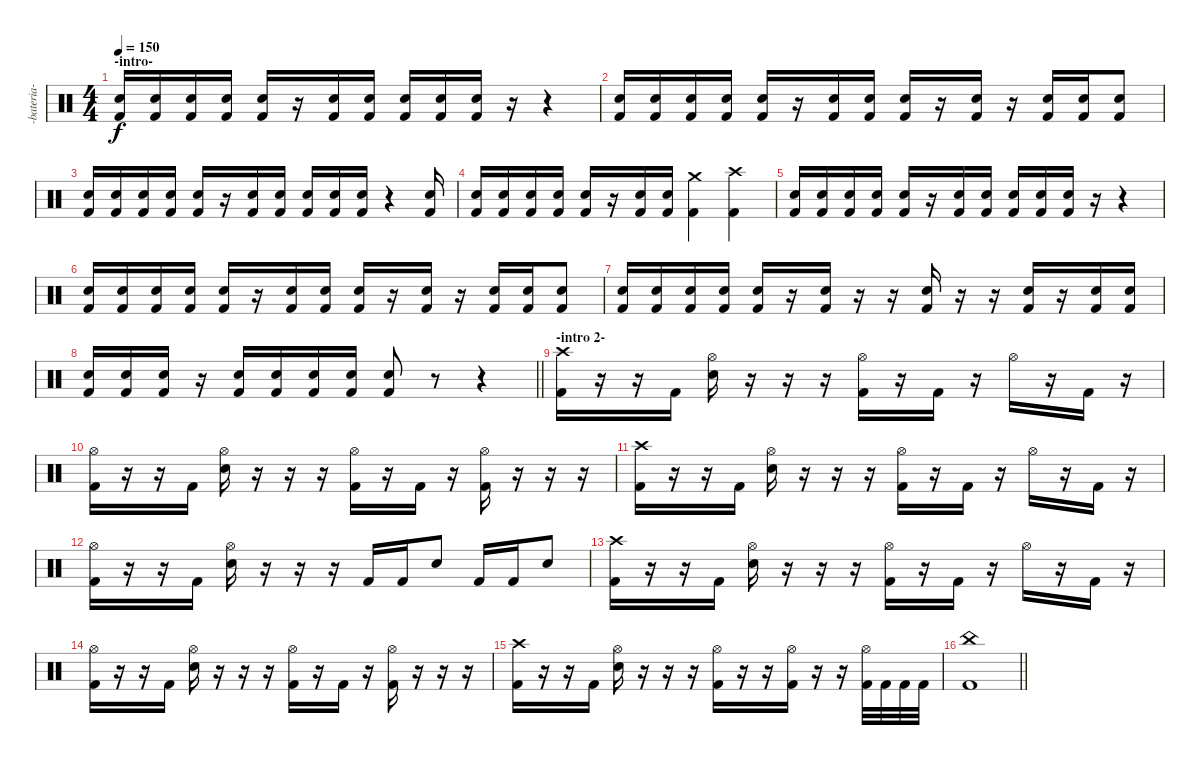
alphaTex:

\track ("-bateria-" "-bateria-") {instrument percussion}
\staff {score}
\articulation defaults
\ts (4 4)
\section ("" "-intro-")
\tempo 150
\clef neutral
\ks c
("Snare (hit) 2" "Kick (hit) 2").16{dy f} ("Snare (hit) 2" "Kick (hit) 2").16 ("Snare (hit) 2" "Kick (hit) 2").16 ("Snare (hit) 2" "Kick (hit) 2").16 ("Snare (hit) 2" "Kick (hit) 2").16 r.16 ("Snare (hit) 2" "Kick (hit) 2").16 ("Snare (hit) 2" "Kick (hit) 2").16 ("Snare (hit) 2" "Kick (hit) 2").16 ("Snare (hit) 2" "Kick (hit) 2").16 ("Snare (hit) 2" "Kick (hit) 2").16 r.16 r.4 |
("Snare (hit) 2" "Kick (hit) 2").16 ("Snare (hit) 2" "Kick (hit) 2").16 ("Snare (hit) 2" "Kick (hit) 2").16 ("Snare (hit) 2" "Kick (hit) 2").16 ("Snare (hit) 2" "Kick (hit) 2").16 r.16 ("Snare (hit) 2" "Kick (hit) 2").16 ("Snare (hit) 2" "Kick (hit) 2").16 ("Snare (hit) 2" "Kick (hit) 2").16 r.16 ("Snare (hit) 2" "Kick (hit) 2").16 r.16 ("Snare (hit) 2" "Kick (hit) 2").16 ("Snare (hit) 2" "Kick (hit) 2").16 ("Snare (hit) 2" "Kick (hit) 2").8 |
("Snare (hit) 2" "Kick (hit) 2").16 ("Snare (hit) 2" "Kick (hit) 2").16 ("Snare (hit) 2" "Kick (hit) 2").16 ("Snare (hit) 2" "Kick (hit) 2").16 ("Snare (hit) 2" "Kick (hit) 2").16 r.16 ("Snare (hit) 2" "Kick (hit) 2").16 ("Snare (hit) 2" "Kick (hit) 2").16 ("Snare (hit) 2" "Kick (hit) 2").16 ("Snare (hit) 2" "Kick (hit) 2").16 ("Snare (hit) 2" "Kick (hit) 2").16 r.4 ("Snare (hit) 2" "Kick (hit) 2").16 |
("Snare (hit) 2" "Kick (hit) 2").16 ("Snare (hit) 2" "Kick (hit) 2").16 ("Snare (hit) 2" "Kick (hit) 2").16 ("Snare (hit) 2" "Kick (hit) 2").16 ("Snare (hit) 2" "Kick (hit) 2").16 r.16 ("Snare (hit) 2" "Kick (hit) 2").16 ("Snare (hit) 2" "Kick (hit) 2").16 ("Crash medium (hit)" "Kick (hit) 2").4 ("Crash high (hit)" "Kick (hit) 2").4 |
("Snare (hit) 2" "Kick (hit) 2").16 ("Snare (hit) 2" "Kick (hit) 2").16 ("Snare (hit) 2" "Kick (hit) 2").16 ("Snare (hit) 2" "Kick (hit) 2").16 ("Snare (hit) 2" "Kick (hit) 2").16 r.16 ("Snare (hit) 2" "Kick (hit) 2").16 ("Snare (hit) 2" "Kick (hit) 2").16 ("Snare (hit) 2" "Kick (hit) 2").16 ("Snare (hit) 2" "Kick (hit) 2").16 ("Snare (hit) 2" "Kick (hit) 2").16 r.16 r.4 |
("Snare (hit) 2" "Kick (hit) 2").16 ("Snare (hit) 2" "Kick (hit) 2").16 ("Snare (hit) 2" "Kick (hit) 2").16 ("Snare (hit) 2" "Kick (hit) 2").16 ("Snare (hit) 2" "Kick (hit) 2").16 r.16 ("Snare (hit) 2" "Kick (hit) 2").16 ("Snare (hit) 2" "Kick (hit) 2").16 ("Snare (hit) 2" "Kick (hit) 2").16 r.16 ("Snare (hit) 2" "Kick (hit) 2").16 r.16 ("Snare (hit) 2" "Kick (hit) 2").16 ("Snare (hit) 2" "Kick (hit) 2").16 ("Snare (hit) 2" "Kick (hit) 2").8 |
("Snare (hit) 2" "Kick (hit) 2").16 ("Snare (hit) 2" "Kick (hit) 2").16 ("Snare (hit) 2" "Kick (hit) 2").16 ("Snare (hit) 2" "Kick (hit) 2").16 ("Snare (hit) 2" "Kick (hit) 2").16 r.16 ("Snare (hit) 2" "Kick (hit) 2").16 r.16 r.16 ("Snare (hit) 2" "Kick (hit) 2").16 r.16 r.16 ("Snare (hit) 2" "Kick (hit) 2").16 r.16 ("Snare (hit) 2" "Kick (hit) 2").16 ("Snare (hit) 2" "Kick (hit) 2").16 |
\barLineRight lightlight
("Snare (hit) 2" "Kick (hit) 2").16 ("Snare (hit) 2" "Kick (hit) 2").16 ("Snare (hit) 2" "Kick (hit) 2").16 r.16 ("Snare (hit) 2" "Kick (hit) 2").16 ("Snare (hit) 2" "Kick (hit) 2").16 ("Snare (hit) 2" "Kick (hit) 2").16 ("Snare (hit) 2" "Kick (hit) 2").16 ("Snare (hit) 2" "Kick (hit) 2").8 r.8 r.4 |
\section ("" "-intro 2-")
("Crash high (hit)" "Kick (hit) 2").16 r.16 r.16 "Kick (hit) 2".16 ("Hi-Hat (open)" "Snare (hit) 2").16 r.16 r.16 r.16 ("Hi-Hat (open)" "Kick (hit) 2").16 r.16 "Kick (hit) 2".16 r.16 "Hi-Hat (open)".16 r.16 "Kick (hit) 2".16 r.16 |
("Hi-Hat (open)" "Kick (hit) 2").16 r.16 r.16 "Kick (hit) 2".16 ("Hi-Hat (open)" "Snare (hit) 2").16 r.16 r.16 r.16 ("Hi-Hat (open)" "Kick (hit) 2").16 r.16 "Kick (hit) 2".16 r.16 ("Hi-Hat (open)" "Kick (hit) 2").16 r.16 r.16 r.16 |
("Crash high (hit)" "Kick (hit) 2").16 r.16 r.16 "Kick (hit) 2".16 ("Hi-Hat (open)" "Snare (hit) 2").16 r.16 r.16 r.16 ("Hi-Hat (open)" "Kick (hit) 2").16 r.16 "Kick (hit) 2".16 r.16 "Hi-Hat (open)".16 r.16 "Kick (hit) 2".16 r.16 |
("Hi-Hat (open)" "Kick (hit) 2").16 r.16 r.16 "Kick (hit) 2".16 ("Hi-Hat (open)" "Snare (hit) 2").16 r.16 r.16 r.16 "Kick (hit) 2".16 "Kick (hit) 2".16 "Snare (hit) 2".8 "Kick (hit) 2".16 "Kick (hit) 2".16 "Snare (hit) 2".8 |
("Crash high (hit)" "Kick (hit) 2").16 r.16 r.16 "Kick (hit) 2".16 ("Hi-Hat (open)" "Snare (hit) 2").16 r.16 r.16 r.16 ("Hi-Hat (open)" "Kick (hit) 2").16 r.16 "Kick (hit) 2".16 r.16 "Hi-Hat (open)".16 r.16 "Kick (hit) 2".16 r.16 |
("Hi-Hat (open)" "Kick (hit) 2").16 r.16 r.16 "Kick (hit) 2".16 ("Hi-Hat (open)" "Snare (hit) 2").16 r.16 r.16 r.16 ("Hi-Hat (open)" "Kick (hit) 2").16 r.16 "Kick (hit) 2".16 r.16 ("Hi-Hat (open)" "Kick (hit) 2").16 r.16 r.16 r.16 |
("Crash high (hit)" "Kick (hit) 2").16 r.16 r.16 "Kick (hit) 2".16 ("Hi-Hat (open)" "Snare (hit) 2").16 r.16 r.16 r.16 ("Hi-Hat (open)" "Kick (hit) 2").16 r.16 r.16 ("Hi-Hat (open)" "Kick (hit) 2").16 r.16 r.16 ("Hi-Hat (open)" "Kick (hit) 2").32 "Kick (hit) 2".32 "Kick (hit) 2".32 "Kick (hit) 2".32 |
\barLineRight lightlight
("China (hit)" "Kick (hit) 2").1
